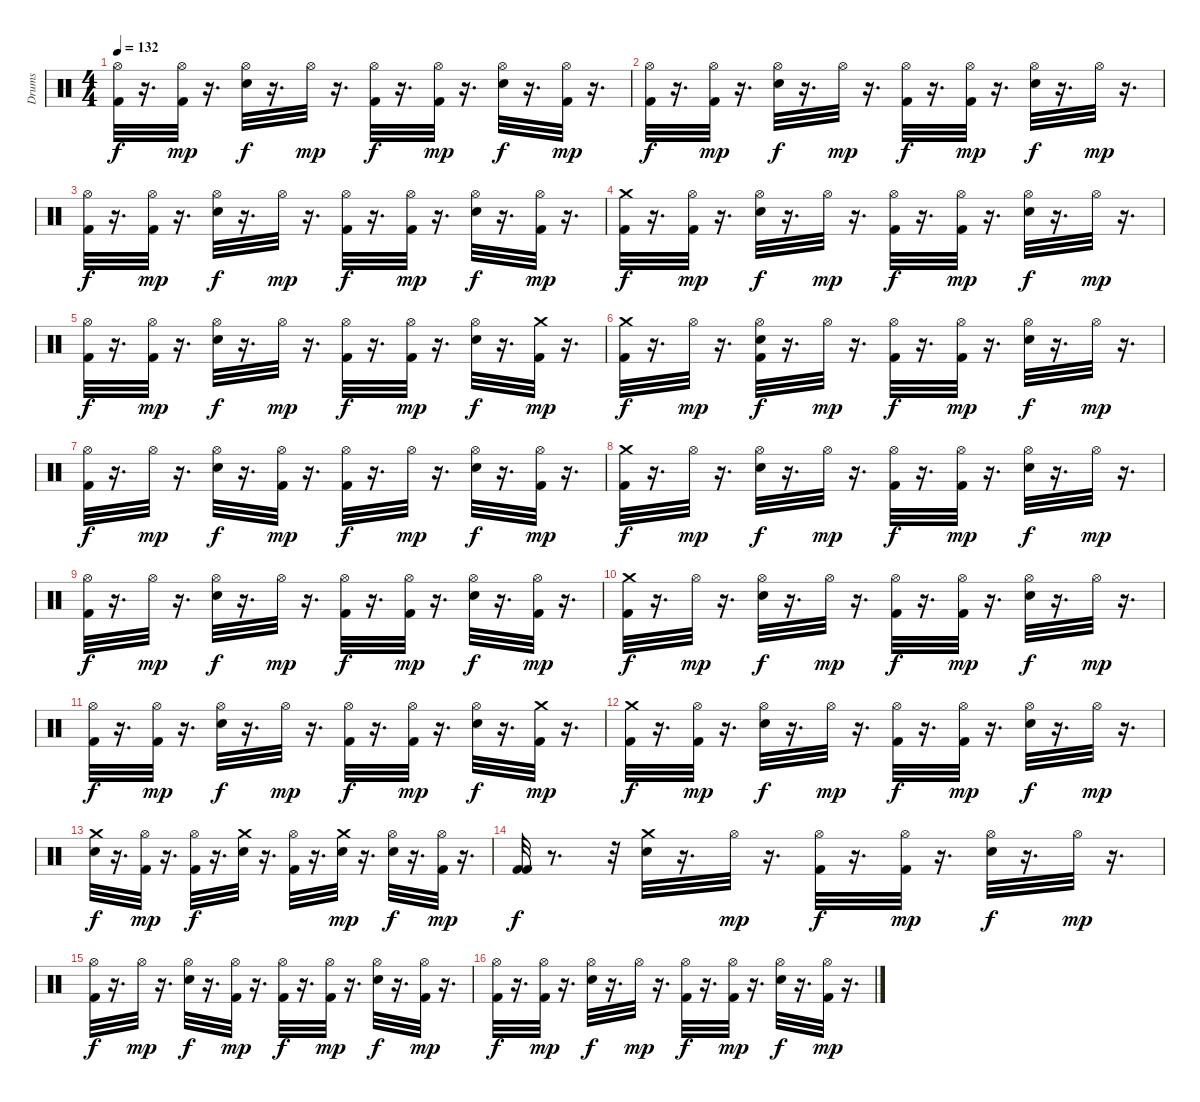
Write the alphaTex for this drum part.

\track ("Drums" "Drums") {instrument percussion}
\staff {score}
\articulation defaults
\ts (4 4)
\tempo 132
\clef neutral
\ks c
("Kick (hit) 2" "Hi-Hat (open)").32{dy f} r.16{d} ("Hi-Hat (open)" "Kick (hit) 2").32{dy mp} r.16{d} ("Electric Snare (hit)" "Hi-Hat (open)").32{dy f} r.16{d} "Hi-Hat (open)".32{dy mp} r.16{d} ("Kick (hit) 2" "Hi-Hat (open)").32{dy f} r.16{d} ("Kick (hit) 2" "Hi-Hat (open)").32{dy mp} r.16{d} ("Hi-Hat (open)" "Electric Snare (hit)").32{dy f} r.16{d} ("Kick (hit) 2" "Hi-Hat (open)").32{dy mp} r.16{d} |
("Hi-Hat (open)" "Kick (hit) 2").32{dy f} r.16{d} ("Kick (hit) 2" "Hi-Hat (open)").32{dy mp} r.16{d} ("Electric Snare (hit)" "Hi-Hat (open)").32{dy f} r.16{d} "Hi-Hat (open)".32{dy mp} r.16{d} ("Hi-Hat (open)" "Kick (hit) 2").32{dy f} r.16{d} ("Kick (hit) 2" "Hi-Hat (open)").32{dy mp} r.16{d} ("Hi-Hat (open)" "Electric Snare (hit)").32{dy f} r.16{d} "Hi-Hat (open)".32{dy mp} r.16{d} |
("Hi-Hat (open)" "Kick (hit) 2").32{dy f} r.16{d} ("Kick (hit) 2" "Hi-Hat (open)").32{dy mp} r.16{d} ("Hi-Hat (open)" "Electric Snare (hit)").32{dy f} r.16{d} "Hi-Hat (open)".32{dy mp} r.16{d} ("Hi-Hat (open)" "Kick (hit) 2").32{dy f} r.16{d} ("Kick (hit) 2" "Hi-Hat (open)").32{dy mp} r.16{d} ("Hi-Hat (open)" "Electric Snare (hit)").32{dy f} r.16{d} ("Hi-Hat (open)" "Kick (hit) 2").32{dy mp} r.16{d} |
("Crash medium (hit)" "Kick (hit) 2").32{dy f} r.16{d} ("Kick (hit) 2" "Hi-Hat (open)").32{dy mp} r.16{d} ("Electric Snare (hit)" "Hi-Hat (open)").32{dy f} r.16{d} "Hi-Hat (open)".32{dy mp} r.16{d} ("Hi-Hat (open)" "Kick (hit) 2").32{dy f} r.16{d} ("Kick (hit) 2" "Hi-Hat (open)").32{dy mp} r.16{d} ("Hi-Hat (open)" "Electric Snare (hit)").32{dy f} r.16{d} "Hi-Hat (open)".32{dy mp} r.16{d} |
("Hi-Hat (open)" "Kick (hit) 2").32{dy f} r.16{d} ("Hi-Hat (open)" "Kick (hit) 2").32{dy mp} r.16{d} ("Hi-Hat (open)" "Electric Snare (hit)").32{dy f} r.16{d} "Hi-Hat (open)".32{dy mp} r.16{d} ("Hi-Hat (open)" "Kick (hit) 2").32{dy f} r.16{d} ("Kick (hit) 2" "Hi-Hat (open)").32{dy mp} r.16{d} ("Hi-Hat (open)" "Electric Snare (hit)").32{dy f} r.16{d} ("Crash medium (hit)" "Kick (hit) 2").32{dy mp} r.16{d} |
("Crash medium (hit)" "Kick (hit) 2").32{dy f} r.16{d} "Hi-Hat (open)".32{dy mp} r.16{d} ("Hi-Hat (open)" "Kick (hit) 2" "Electric Snare (hit)").32{dy f} r.16{d} "Hi-Hat (open)".32{dy mp} r.16{d} ("Hi-Hat (open)" "Kick (hit) 2").32{dy f} r.16{d} ("Hi-Hat (open)" "Kick (hit) 2").32{dy mp} r.16{d} ("Electric Snare (hit)" "Hi-Hat (open)").32{dy f} r.16{d} "Hi-Hat (open)".32{dy mp} r.16{d} |
("Kick (hit) 2" "Hi-Hat (open)").32{dy f} r.16{d} "Hi-Hat (open)".32{dy mp} r.16{d} ("Hi-Hat (open)" "Electric Snare (hit)").32{dy f} r.16{d} ("Kick (hit) 2" "Hi-Hat (open)").32{dy mp} r.16{d} ("Hi-Hat (open)" "Kick (hit) 2").32{dy f} r.16{d} "Hi-Hat (open)".32{dy mp} r.16{d} ("Electric Snare (hit)" "Hi-Hat (open)").32{dy f} r.16{d} ("Kick (hit) 2" "Hi-Hat (open)").32{dy mp} r.16{d} |
("Kick (hit) 2" "Crash medium (hit)").32{dy f} r.16{d} "Hi-Hat (open)".32{dy mp} r.16{d} ("Hi-Hat (open)" "Electric Snare (hit)").32{dy f} r.16{d} "Hi-Hat (open)".32{dy mp} r.16{d} ("Kick (hit) 2" "Hi-Hat (open)").32{dy f} r.16{d} ("Kick (hit) 2" "Hi-Hat (open)").32{dy mp} r.16{d} ("Hi-Hat (open)" "Electric Snare (hit)").32{dy f} r.16{d} "Hi-Hat (open)".32{dy mp} r.16{d} |
("Hi-Hat (open)" "Kick (hit) 2").32{dy f} r.16{d} "Hi-Hat (open)".32{dy mp} r.16{d} ("Hi-Hat (open)" "Electric Snare (hit)").32{dy f} r.16{d} "Hi-Hat (open)".32{dy mp} r.16{d} ("Hi-Hat (open)" "Kick (hit) 2").32{dy f} r.16{d} ("Kick (hit) 2" "Hi-Hat (open)").32{dy mp} r.16{d} ("Hi-Hat (open)" "Electric Snare (hit)").32{dy f} r.16{d} ("Kick (hit) 2" "Hi-Hat (open)").32{dy mp} r.16{d} |
("Kick (hit) 2" "Crash medium (hit)").32{dy f} r.16{d} "Hi-Hat (open)".32{dy mp} r.16{d} ("Hi-Hat (open)" "Electric Snare (hit)").32{dy f} r.16{d} "Hi-Hat (open)".32{dy mp} r.16{d} ("Hi-Hat (open)" "Kick (hit) 2").32{dy f} r.16{d} ("Kick (hit) 2" "Hi-Hat (open)").32{dy mp} r.16{d} ("Hi-Hat (open)" "Electric Snare (hit)").32{dy f} r.16{d} "Hi-Hat (open)".32{dy mp} r.16{d} |
("Hi-Hat (open)" "Kick (hit) 2").32{dy f} r.16{d} ("Kick (hit) 2" "Hi-Hat (open)").32{dy mp} r.16{d} ("Hi-Hat (open)" "Electric Snare (hit)").32{dy f} r.16{d} "Hi-Hat (open)".32{dy mp} r.16{d} ("Kick (hit) 2" "Hi-Hat (open)").32{dy f} r.16{d} ("Hi-Hat (open)" "Kick (hit) 2").32{dy mp} r.16{d} ("Hi-Hat (open)" "Electric Snare (hit)").32{dy f} r.16{d} ("Crash medium (hit)" "Kick (hit) 2").32{dy mp} r.16{d} |
("Crash medium (hit)" "Kick (hit) 2").32{dy f} r.16{d} ("Kick (hit) 2" "Hi-Hat (open)").32{dy mp} r.16{d} ("Hi-Hat (open)" "Electric Snare (hit)").32{dy f} r.16{d} "Hi-Hat (open)".32{dy mp} r.16{d} ("Hi-Hat (open)" "Kick (hit) 2").32{dy f} r.16{d} ("Hi-Hat (open)" "Kick (hit) 2").32{dy mp} r.16{d} ("Electric Snare (hit)" "Hi-Hat (open)").32{dy f} r.16{d} "Hi-Hat (open)".32{dy mp} r.16{d} |
("Electric Snare (hit)" "Crash medium (hit)").32{dy f} r.16{d} ("Kick (hit) 2" "Hi-Hat (open)").32{dy mp} r.16{d} ("Kick (hit) 2" "Hi-Hat (open)").32{dy f} r.16{d} ("Crash medium (hit)" "Electric Snare (hit)").32 r.16{d} ("Hi-Hat (open)" "Kick (hit) 2").32 r.16{d} ("Electric Snare (hit)" "Crash medium (hit)").32{dy mp} r.16{d} ("Hi-Hat (open)" "Electric Snare (hit)").32{dy f} r.16{d} ("Hi-Hat (open)" "Kick (hit) 2").32{dy mp} r.16{d} |
("Kick (hit) 2" "Kick (hit) 2").32{dy f} r.8{d} r.32 ("Crash medium (hit)" "Electric Snare (hit)").32 r.16{d} "Hi-Hat (open)".32{dy mp} r.16{d} ("Hi-Hat (open)" "Kick (hit) 2").32{dy f} r.16{d} ("Kick (hit) 2" "Hi-Hat (open)").32{dy mp} r.16{d} ("Hi-Hat (open)" "Electric Snare (hit)").32{dy f} r.16{d} "Hi-Hat (open)".32{dy mp} r.16{d} |
("Hi-Hat (open)" "Kick (hit) 2").32{dy f} r.16{d} "Hi-Hat (open)".32{dy mp} r.16{d} ("Hi-Hat (open)" "Electric Snare (hit)").32{dy f} r.16{d} ("Kick (hit) 2" "Hi-Hat (open)").32{dy mp} r.16{d} ("Hi-Hat (open)" "Kick (hit) 2").32{dy f} r.16{d} ("Kick (hit) 2" "Hi-Hat (open)").32{dy mp} r.16{d} ("Hi-Hat (open)" "Electric Snare (hit)").32{dy f} r.16{d} ("Hi-Hat (open)" "Kick (hit) 2").32{dy mp} r.16{d} |
("Hi-Hat (open)" "Kick (hit) 2").32{dy f} r.16{d} ("Kick (hit) 2" "Hi-Hat (open)").32{dy mp} r.16{d} ("Hi-Hat (open)" "Electric Snare (hit)").32{dy f} r.16{d} "Hi-Hat (open)".32{dy mp} r.16{d} ("Kick (hit) 2" "Hi-Hat (open)").32{dy f} r.16{d} ("Hi-Hat (open)" "Kick (hit) 2").32{dy mp} r.16{d} ("Electric Snare (hit)" "Hi-Hat (open)").32{dy f} r.16{d} ("Kick (hit) 2" "Hi-Hat (open)").32{dy mp} r.16{d}
